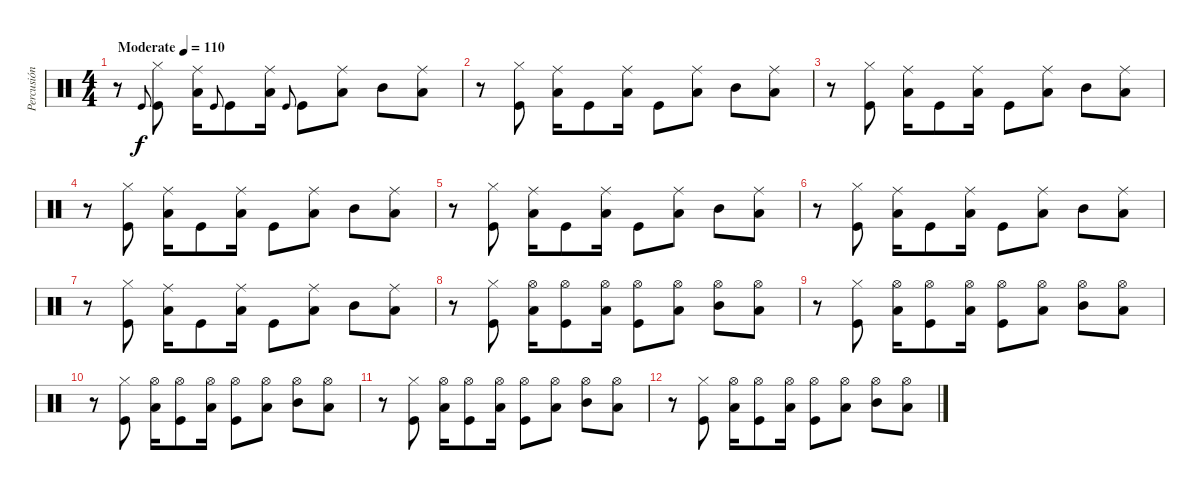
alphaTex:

\track ("Percusión" "Percusión") {instrument percussion}
\staff {score}
\articulation defaults
\ts (4 4)
\tempo (110 "Moderate")
\clef neutral
\ks c
r.8{dy f} "Kick (hit)".8{gr onbeat} ("Hi-Hat (closed)" "Kick (hit)").8 ("Ride (middle)" "Low Floor Tom (hit)").16 "Kick (hit)".8{gr onbeat} "Kick (hit)".8 ("Ride (middle)" "Low Floor Tom (hit)").16 "Kick (hit)".8{gr onbeat} "Kick (hit)".8 ("Ride (middle)" "Low Floor Tom (hit)").8 "Mid Tom (hit)".8 ("Ride (middle)" "Low Floor Tom (hit)").8 |
r.8 ("Hi-Hat (closed)" "Kick (hit)").8 ("Ride (middle)" "Low Floor Tom (hit)").16 "Kick (hit)".8 ("Ride (middle)" "Low Floor Tom (hit)").16 "Kick (hit)".8 ("Ride (middle)" "Low Floor Tom (hit)").8 "Mid Tom (hit)".8 ("Ride (middle)" "Low Floor Tom (hit)").8 |
r.8 ("Hi-Hat (closed)" "Kick (hit)").8 ("Ride (middle)" "Low Floor Tom (hit)").16 "Kick (hit)".8 ("Ride (middle)" "Low Floor Tom (hit)").16 "Kick (hit)".8 ("Ride (middle)" "Low Floor Tom (hit)").8 "Mid Tom (hit)".8 ("Ride (middle)" "Low Floor Tom (hit)").8 |
r.8 ("Hi-Hat (closed)" "Kick (hit)").8 ("Ride (middle)" "Low Floor Tom (hit)").16 "Kick (hit)".8 ("Ride (middle)" "Low Floor Tom (hit)").16 "Kick (hit)".8 ("Ride (middle)" "Low Floor Tom (hit)").8 "Mid Tom (hit)".8 ("Ride (middle)" "Low Floor Tom (hit)").8 |
r.8 ("Hi-Hat (closed)" "Kick (hit)").8 ("Ride (middle)" "Low Floor Tom (hit)").16 "Kick (hit)".8 ("Ride (middle)" "Low Floor Tom (hit)").16 "Kick (hit)".8 ("Ride (middle)" "Low Floor Tom (hit)").8 "Mid Tom (hit)".8 ("Ride (middle)" "Low Floor Tom (hit)").8 |
r.8 ("Hi-Hat (closed)" "Kick (hit)").8 ("Ride (middle)" "Low Floor Tom (hit)").16 "Kick (hit)".8 ("Ride (middle)" "Low Floor Tom (hit)").16 "Kick (hit)".8 ("Ride (middle)" "Low Floor Tom (hit)").8 "Mid Tom (hit)".8 ("Ride (middle)" "Low Floor Tom (hit)").8 |
r.8 ("Hi-Hat (closed)" "Kick (hit)").8 ("Ride (middle)" "Low Floor Tom (hit)").16 "Kick (hit)".8 ("Ride (middle)" "Low Floor Tom (hit)").16 "Kick (hit)".8 ("Ride (middle)" "Low Floor Tom (hit)").8 "Mid Tom (hit)".8 ("Ride (middle)" "Low Floor Tom (hit)").8 |
r.8 ("Hi-Hat (closed)" "Kick (hit)").8 ("Hi-Hat (open)" "Low Floor Tom (hit)").16 ("Hi-Hat (open)" "Kick (hit)").8 ("Hi-Hat (open)" "Low Floor Tom (hit)").16 ("Hi-Hat (open)" "Kick (hit)").8 ("Hi-Hat (open)" "Low Floor Tom (hit)").8 ("Hi-Hat (open)" "Mid Tom (hit)").8 ("Hi-Hat (open)" "Low Floor Tom (hit)").8 |
r.8 ("Hi-Hat (closed)" "Kick (hit)").8 ("Hi-Hat (open)" "Low Floor Tom (hit)").16 ("Hi-Hat (open)" "Kick (hit)").8 ("Hi-Hat (open)" "Low Floor Tom (hit)").16 ("Hi-Hat (open)" "Kick (hit)").8 ("Hi-Hat (open)" "Low Floor Tom (hit)").8 ("Hi-Hat (open)" "Mid Tom (hit)").8 ("Hi-Hat (open)" "Low Floor Tom (hit)").8 |
r.8 ("Hi-Hat (closed)" "Kick (hit)").8 ("Hi-Hat (open)" "Low Floor Tom (hit)").16 ("Hi-Hat (open)" "Kick (hit)").8 ("Hi-Hat (open)" "Low Floor Tom (hit)").16 ("Hi-Hat (open)" "Kick (hit)").8 ("Hi-Hat (open)" "Low Floor Tom (hit)").8 ("Hi-Hat (open)" "Mid Tom (hit)").8 ("Hi-Hat (open)" "Low Floor Tom (hit)").8 |
r.8 ("Hi-Hat (closed)" "Kick (hit)").8 ("Hi-Hat (open)" "Low Floor Tom (hit)").16 ("Hi-Hat (open)" "Kick (hit)").8 ("Hi-Hat (open)" "Low Floor Tom (hit)").16 ("Hi-Hat (open)" "Kick (hit)").8 ("Hi-Hat (open)" "Low Floor Tom (hit)").8 ("Hi-Hat (open)" "Mid Tom (hit)").8 ("Hi-Hat (open)" "Low Floor Tom (hit)").8 |
r.8 ("Hi-Hat (closed)" "Kick (hit)").8 ("Hi-Hat (open)" "Low Floor Tom (hit)").16 ("Hi-Hat (open)" "Kick (hit)").8 ("Hi-Hat (open)" "Low Floor Tom (hit)").16 ("Hi-Hat (open)" "Kick (hit)").8 ("Hi-Hat (open)" "Low Floor Tom (hit)").8 ("Hi-Hat (open)" "Mid Tom (hit)").8 ("Hi-Hat (open)" "Low Floor Tom (hit)").8
